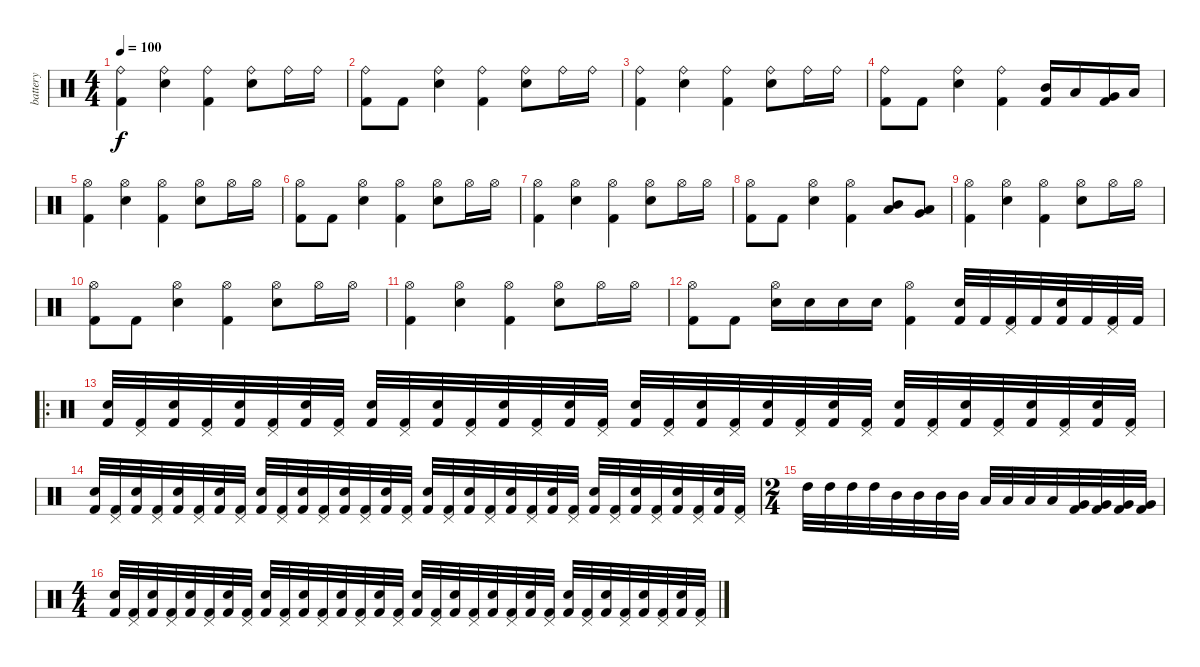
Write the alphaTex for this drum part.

\track ("battery" "battery") {instrument percussion}
\staff {score}
\articulation defaults
\ts (4 4)
\tempo 100
\clef neutral
\ks c
("Ride (bell)" "Kick (hit) 2").4{dy f} ("Ride (bell)" "Snare (hit) 2").4 ("Ride (bell)" "Kick (hit) 2").4 ("Ride (bell)" "Snare (hit) 2").8 "Ride (bell)".16 "Ride (bell)".16 |
("Ride (bell)" "Kick (hit) 2").8 "Kick (hit) 2".8 ("Ride (bell)" "Snare (hit) 2").4 ("Ride (bell)" "Kick (hit) 2").4 ("Ride (bell)" "Snare (hit) 2").8 "Ride (bell)".16 "Ride (bell)".16 |
("Ride (bell)" "Kick (hit) 2").4 ("Ride (bell)" "Snare (hit) 2").4 ("Ride (bell)" "Kick (hit) 2").4 ("Ride (bell)" "Snare (hit) 2").8 "Ride (bell)".16 "Ride (bell)".16 |
("Ride (bell)" "Kick (hit) 2").8 "Kick (hit) 2".8 ("Ride (bell)" "Snare (hit) 2").4 ("Ride (bell)" "Kick (hit) 2").4 ("Mid Tom (hit)" "Kick (hit) 2").16 "Low Tom (hit)".16 ("Very Low Tom (hit)" "Kick (hit) 2").16 "Low Floor Tom (hit)".16 |
("Hi-Hat (open)" "Kick (hit) 2").4 ("Hi-Hat (open)" "Snare (hit) 2").4 ("Hi-Hat (open)" "Kick (hit) 2").4 ("Hi-Hat (open)" "Snare (hit) 2").8 "Hi-Hat (open)".16 "Hi-Hat (open)".16 |
("Hi-Hat (open)" "Kick (hit) 2").8 "Kick (hit) 2".8 ("Hi-Hat (open)" "Snare (hit) 2").4 ("Hi-Hat (open)" "Kick (hit) 2").4 ("Hi-Hat (open)" "Snare (hit) 2").8 "Hi-Hat (open)".16 "Hi-Hat (open)".16 |
("Hi-Hat (open)" "Kick (hit) 2").4 ("Hi-Hat (open)" "Snare (hit) 2").4 ("Hi-Hat (open)" "Kick (hit) 2").4 ("Hi-Hat (open)" "Snare (hit) 2").8 "Hi-Hat (open)".16 "Hi-Hat (open)".16 |
("Hi-Hat (open)" "Kick (hit) 2").8 "Kick (hit) 2".8 ("Hi-Hat (open)" "Snare (hit) 2").4 ("Hi-Hat (open)" "Kick (hit) 2").4 ("Mid Tom (hit)" "Low Tom (hit)").8 ("Low Tom (hit)" "Very Low Tom (hit)").8 |
("Hi-Hat (open)" "Kick (hit) 2").4 ("Hi-Hat (open)" "Snare (hit) 2").4 ("Hi-Hat (open)" "Kick (hit) 2").4 ("Hi-Hat (open)" "Snare (hit) 2").8 "Hi-Hat (open)".16 "Hi-Hat (open)".16 |
("Hi-Hat (open)" "Kick (hit) 2").8 "Kick (hit) 2".8 ("Hi-Hat (open)" "Snare (hit) 2").4 ("Hi-Hat (open)" "Kick (hit) 2").4 ("Hi-Hat (open)" "Snare (hit) 2").8 "Hi-Hat (open)".16 "Hi-Hat (open)".16 |
("Hi-Hat (open)" "Kick (hit) 2").4 ("Hi-Hat (open)" "Snare (hit) 2").4 ("Hi-Hat (open)" "Kick (hit) 2").4 ("Hi-Hat (open)" "Snare (hit) 2").8 "Hi-Hat (open)".16 "Hi-Hat (open)".16 |
("Hi-Hat (open)" "Kick (hit) 2").8 "Kick (hit) 2".8 ("Hi-Hat (open)" "Snare (hit) 2").16 "Snare (hit) 2".16 "Snare (hit) 2".16 "Snare (hit) 2".16 ("Hi-Hat (open)" "Kick (hit) 2").4 ("Snare (hit) 2" "Kick (hit) 2").32 "Kick (hit) 2".32 ("Pedal Hi-Hat (hit)" "Kick (hit) 2").32 "Kick (hit) 2".32 ("Snare (hit) 2" "Kick (hit) 2").32 "Kick (hit) 2".32 ("Pedal Hi-Hat (hit)" "Kick (hit) 2").32 "Kick (hit) 2".32 |
\ro
("Snare (hit) 2" "Kick (hit) 2").32 ("Pedal Hi-Hat (hit)" "Kick (hit) 2").32 ("Snare (hit) 2" "Kick (hit) 2").32 ("Pedal Hi-Hat (hit)" "Kick (hit) 2").32 ("Snare (hit) 2" "Kick (hit) 2").32 ("Pedal Hi-Hat (hit)" "Kick (hit) 2").32 ("Snare (hit) 2" "Kick (hit) 2").32 ("Pedal Hi-Hat (hit)" "Kick (hit) 2").32 ("Snare (hit) 2" "Kick (hit) 2").32 ("Pedal Hi-Hat (hit)" "Kick (hit) 2").32 ("Snare (hit) 2" "Kick (hit) 2").32 ("Pedal Hi-Hat (hit)" "Kick (hit) 2").32 ("Snare (hit) 2" "Kick (hit) 2").32 ("Pedal Hi-Hat (hit)" "Kick (hit) 2").32 ("Snare (hit) 2" "Kick (hit) 2").32 ("Pedal Hi-Hat (hit)" "Kick (hit) 2").32 ("Snare (hit) 2" "Kick (hit) 2").32 ("Pedal Hi-Hat (hit)" "Kick (hit) 2").32 ("Snare (hit) 2" "Kick (hit) 2").32 ("Pedal Hi-Hat (hit)" "Kick (hit) 2").32 ("Snare (hit) 2" "Kick (hit) 2").32 ("Pedal Hi-Hat (hit)" "Kick (hit) 2").32 ("Snare (hit) 2" "Kick (hit) 2").32 ("Pedal Hi-Hat (hit)" "Kick (hit) 2").32 ("Snare (hit) 2" "Kick (hit) 2").32 ("Pedal Hi-Hat (hit)" "Kick (hit) 2").32 ("Snare (hit) 2" "Kick (hit) 2").32 ("Pedal Hi-Hat (hit)" "Kick (hit) 2").32 ("Snare (hit) 2" "Kick (hit) 2").32 ("Pedal Hi-Hat (hit)" "Kick (hit) 2").32 ("Snare (hit) 2" "Kick (hit) 2").32 ("Pedal Hi-Hat (hit)" "Kick (hit) 2").32 |
("Snare (hit) 2" "Kick (hit) 2").32 ("Pedal Hi-Hat (hit)" "Kick (hit) 2").32 ("Snare (hit) 2" "Kick (hit) 2").32 ("Pedal Hi-Hat (hit)" "Kick (hit) 2").32 ("Snare (hit) 2" "Kick (hit) 2").32 ("Pedal Hi-Hat (hit)" "Kick (hit) 2").32 ("Snare (hit) 2" "Kick (hit) 2").32 ("Pedal Hi-Hat (hit)" "Kick (hit) 2").32 ("Snare (hit) 2" "Kick (hit) 2").32 ("Pedal Hi-Hat (hit)" "Kick (hit) 2").32 ("Snare (hit) 2" "Kick (hit) 2").32 ("Pedal Hi-Hat (hit)" "Kick (hit) 2").32 ("Snare (hit) 2" "Kick (hit) 2").32 ("Pedal Hi-Hat (hit)" "Kick (hit) 2").32 ("Snare (hit) 2" "Kick (hit) 2").32 ("Pedal Hi-Hat (hit)" "Kick (hit) 2").32 ("Snare (hit) 2" "Kick (hit) 2").32 ("Pedal Hi-Hat (hit)" "Kick (hit) 2").32 ("Snare (hit) 2" "Kick (hit) 2").32 ("Pedal Hi-Hat (hit)" "Kick (hit) 2").32 ("Snare (hit) 2" "Kick (hit) 2").32 ("Pedal Hi-Hat (hit)" "Kick (hit) 2").32 ("Snare (hit) 2" "Kick (hit) 2").32 ("Pedal Hi-Hat (hit)" "Kick (hit) 2").32 ("Snare (hit) 2" "Kick (hit) 2").32 ("Pedal Hi-Hat (hit)" "Kick (hit) 2").32 ("Snare (hit) 2" "Kick (hit) 2").32 ("Pedal Hi-Hat (hit)" "Kick (hit) 2").32 ("Snare (hit) 2" "Kick (hit) 2").32 ("Pedal Hi-Hat (hit)" "Kick (hit) 2").32 ("Snare (hit) 2" "Kick (hit) 2").32 ("Pedal Hi-Hat (hit)" "Kick (hit) 2").32 |
\ts (2 4)
"High Tom (hit)".32 "High Tom (hit)".32 "High Tom (hit)".32 "High Tom (hit)".32 "Mid Tom (hit)".32 "Mid Tom (hit)".32 "Mid Tom (hit)".32 "Mid Tom (hit)".32 "Low Tom (hit)".32 "Low Tom (hit)".32 "Low Tom (hit)".32 "Low Tom (hit)".32 ("Kick (hit) 2" "Very Low Tom (hit)").32 ("Kick (hit) 2" "Very Low Tom (hit)").32 ("Kick (hit) 2" "Very Low Tom (hit)").32 ("Kick (hit) 2" "Very Low Tom (hit)").32 |
\ts (4 4)
("Snare (hit) 2" "Kick (hit) 2").32 ("Pedal Hi-Hat (hit)" "Kick (hit) 2").32 ("Snare (hit) 2" "Kick (hit) 2").32 ("Pedal Hi-Hat (hit)" "Kick (hit) 2").32 ("Snare (hit) 2" "Kick (hit) 2").32 ("Pedal Hi-Hat (hit)" "Kick (hit) 2").32 ("Snare (hit) 2" "Kick (hit) 2").32 ("Pedal Hi-Hat (hit)" "Kick (hit) 2").32 ("Snare (hit) 2" "Kick (hit) 2").32 ("Pedal Hi-Hat (hit)" "Kick (hit) 2").32 ("Snare (hit) 2" "Kick (hit) 2").32 ("Pedal Hi-Hat (hit)" "Kick (hit) 2").32 ("Snare (hit) 2" "Kick (hit) 2").32 ("Pedal Hi-Hat (hit)" "Kick (hit) 2").32 ("Snare (hit) 2" "Kick (hit) 2").32 ("Pedal Hi-Hat (hit)" "Kick (hit) 2").32 ("Snare (hit) 2" "Kick (hit) 2").32 ("Pedal Hi-Hat (hit)" "Kick (hit) 2").32 ("Snare (hit) 2" "Kick (hit) 2").32 ("Pedal Hi-Hat (hit)" "Kick (hit) 2").32 ("Snare (hit) 2" "Kick (hit) 2").32 ("Pedal Hi-Hat (hit)" "Kick (hit) 2").32 ("Snare (hit) 2" "Kick (hit) 2").32 ("Pedal Hi-Hat (hit)" "Kick (hit) 2").32 ("Snare (hit) 2" "Kick (hit) 2").32 ("Pedal Hi-Hat (hit)" "Kick (hit) 2").32 ("Snare (hit) 2" "Kick (hit) 2").32 ("Pedal Hi-Hat (hit)" "Kick (hit) 2").32 ("Snare (hit) 2" "Kick (hit) 2").32 ("Pedal Hi-Hat (hit)" "Kick (hit) 2").32 ("Snare (hit) 2" "Kick (hit) 2").32 ("Pedal Hi-Hat (hit)" "Kick (hit) 2").32
